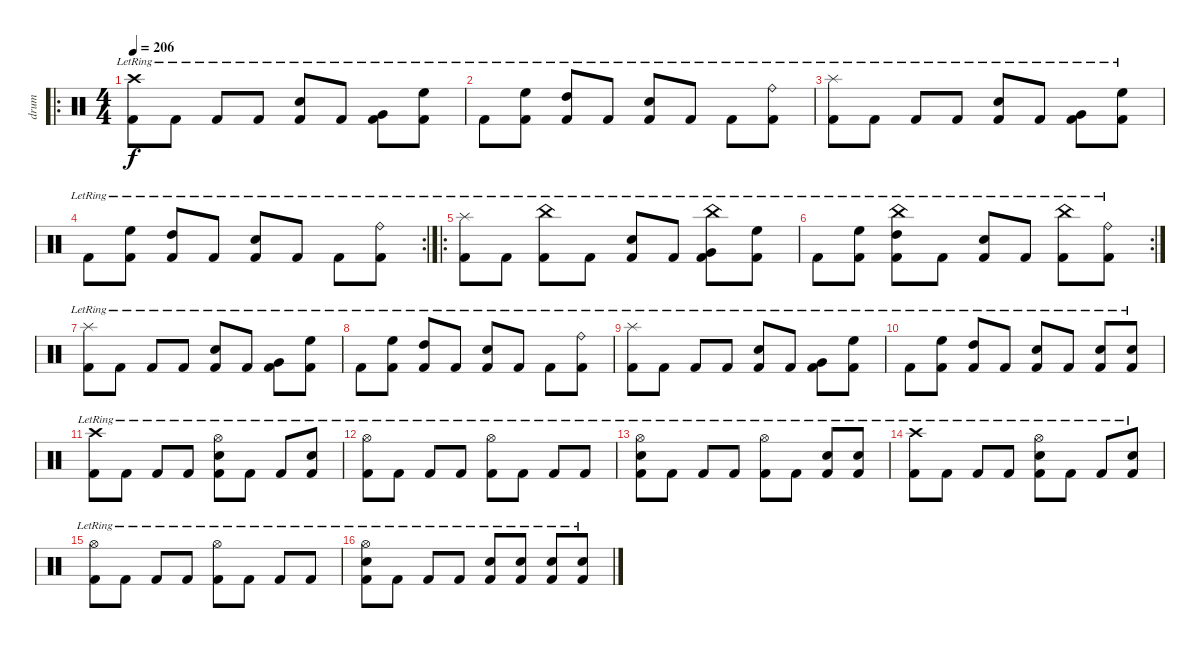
\track ("drum" "drum") {instrument percussion}
\staff {score}
\articulation defaults
\ro
\ts (4 4)
\tempo 206
\clef neutral
\ks c
("Crash high (hit)"{lr} "Kick (hit) 2"{lr}).8{dy f} "Kick (hit) 2"{lr}.8 "Kick (hit) 2"{lr}.8 "Kick (hit) 2"{lr}.8 ("Electric Snare (hit)"{lr} "Kick (hit) 2"{lr}).8 "Kick (hit) 2"{lr}.8 ("Very Low Tom (hit)"{lr} "Kick (hit) 2"{lr}).8 ("High Floor Tom (hit)"{lr} "Kick (hit) 2"{lr}).8 |
"Kick (hit) 2"{lr}.8 ("High Floor Tom (hit)"{lr} "Kick (hit) 2"{lr}).8 ("High Tom (hit)"{lr} "Kick (hit) 2"{lr}).8 "Kick (hit) 2"{lr}.8 ("Electric Snare (hit)"{lr} "Kick (hit) 2"{lr}).8 "Kick (hit) 2"{lr}.8 "Kick (hit) 2"{lr}.8 ("Ride (bell)"{lr} "Kick (hit) 2"{lr}).8 |
("Splash (hit)"{lr} "Kick (hit) 2"{lr}).8 "Kick (hit) 2"{lr}.8 "Kick (hit) 2"{lr}.8 "Kick (hit) 2"{lr}.8 ("Electric Snare (hit)"{lr} "Kick (hit) 2"{lr}).8 "Kick (hit) 2"{lr}.8 ("Very Low Tom (hit)"{lr} "Kick (hit) 2"{lr}).8 ("High Floor Tom (hit)"{lr} "Kick (hit) 2"{lr}).8 |
\rc 2 "Kick (hit) 2"{lr}.8
("High Floor Tom (hit)"{lr} "Kick (hit) 2"{lr}).8 ("High Tom (hit)"{lr} "Kick (hit) 2"{lr}).8 "Kick (hit) 2"{lr}.8 ("Electric Snare (hit)"{lr} "Kick (hit) 2"{lr}).8 "Kick (hit) 2"{lr}.8 "Kick (hit) 2"{lr}.8 ("Ride (bell)"{lr} "Kick (hit) 2"{lr}).8 |
\ro
("Splash (hit)"{lr} "Kick (hit) 2"{lr}).8 "Kick (hit) 2"{lr}.8 ("China (hit)"{lr} "Kick (hit) 2"{lr}).8 "Kick (hit) 2"{lr}.8 ("Electric Snare (hit)"{lr} "Kick (hit) 2"{lr}).8 "Kick (hit) 2"{lr}.8 ("China (hit)"{lr} "Very Low Tom (hit)"{lr} "Kick (hit) 2"{lr}).8 ("High Floor Tom (hit)"{lr} "Kick (hit) 2"{lr}).8 |
\rc 2 "Kick (hit) 2"{lr}.8
("High Floor Tom (hit)"{lr} "Kick (hit) 2"{lr}).8 ("China (hit)"{lr} "High Tom (hit)"{lr} "Kick (hit) 2"{lr}).8 "Kick (hit) 2"{lr}.8 ("Electric Snare (hit)"{lr} "Kick (hit) 2"{lr}).8 "Kick (hit) 2"{lr}.8 ("China (hit)"{lr} "Kick (hit) 2"{lr}).8 ("Ride (bell)"{lr} "Kick (hit) 2"{lr}).8 |
("Splash (hit)"{lr} "Kick (hit) 2"{lr}).8 "Kick (hit) 2"{lr}.8 "Kick (hit) 2"{lr}.8 "Kick (hit) 2"{lr}.8 ("Electric Snare (hit)"{lr} "Kick (hit) 2"{lr}).8 "Kick (hit) 2"{lr}.8 ("Very Low Tom (hit)"{lr} "Kick (hit) 2"{lr}).8 ("High Floor Tom (hit)"{lr} "Kick (hit) 2"{lr}).8 |
"Kick (hit) 2"{lr}.8 ("High Floor Tom (hit)"{lr} "Kick (hit) 2"{lr}).8 ("High Tom (hit)"{lr} "Kick (hit) 2"{lr}).8 "Kick (hit) 2"{lr}.8 ("Electric Snare (hit)"{lr} "Kick (hit) 2"{lr}).8 "Kick (hit) 2"{lr}.8 "Kick (hit) 2"{lr}.8 ("Ride (bell)"{lr} "Kick (hit) 2"{lr}).8 |
("Splash (hit)"{lr} "Kick (hit) 2"{lr}).8 "Kick (hit) 2"{lr}.8 "Kick (hit) 2"{lr}.8 "Kick (hit) 2"{lr}.8 ("Electric Snare (hit)"{lr} "Kick (hit) 2"{lr}).8 "Kick (hit) 2"{lr}.8 ("Very Low Tom (hit)"{lr} "Kick (hit) 2"{lr}).8 ("High Floor Tom (hit)"{lr} "Kick (hit) 2"{lr}).8 |
"Kick (hit) 2"{lr}.8 ("High Floor Tom (hit)"{lr} "Kick (hit) 2"{lr}).8 ("High Tom (hit)"{lr} "Kick (hit) 2"{lr}).8 "Kick (hit) 2"{lr}.8 ("Electric Snare (hit)"{lr} "Kick (hit) 2"{lr}).8 "Kick (hit) 2"{lr}.8 ("Electric Snare (hit)"{lr} "Kick (hit) 2"{lr}).8 ("Electric Snare (hit)"{lr} "Kick (hit) 2"{lr}).8 |
("Crash high (hit)"{lr} "Kick (hit) 2"{lr}).8 "Kick (hit) 2"{lr}.8 "Kick (hit) 2"{lr}.8 "Kick (hit) 2"{lr}.8 ("Hi-Hat (open)"{lr} "Electric Snare (hit)"{lr} "Kick (hit) 2"{lr}).8 "Kick (hit) 2"{lr}.8 "Kick (hit) 2"{lr}.8 ("Electric Snare (hit)"{lr} "Kick (hit) 2"{lr}).8 |
("Hi-Hat (open)"{lr} "Kick (hit) 2"{lr}).8 "Kick (hit) 2"{lr}.8 "Kick (hit) 2"{lr}.8 "Kick (hit) 2"{lr}.8 ("Hi-Hat (open)"{lr} "Kick (hit) 2"{lr}).8 "Kick (hit) 2"{lr}.8 "Kick (hit) 2"{lr}.8 "Kick (hit) 2"{lr}.8 |
("Hi-Hat (open)"{lr} "Electric Snare (hit)"{lr} "Kick (hit) 2"{lr}).8 "Kick (hit) 2"{lr}.8 "Kick (hit) 2"{lr}.8 "Kick (hit) 2"{lr}.8 ("Hi-Hat (open)"{lr} "Kick (hit) 2"{lr}).8 "Kick (hit) 2"{lr}.8 ("Electric Snare (hit)"{lr} "Kick (hit) 2"{lr}).8 ("Electric Snare (hit)"{lr} "Kick (hit) 2"{lr}).8 |
("Crash high (hit)"{lr} "Kick (hit) 2"{lr}).8 "Kick (hit) 2"{lr}.8 "Kick (hit) 2"{lr}.8 "Kick (hit) 2"{lr}.8 ("Hi-Hat (open)"{lr} "Electric Snare (hit)"{lr} "Kick (hit) 2"{lr}).8 "Kick (hit) 2"{lr}.8 "Kick (hit) 2"{lr}.8 ("Electric Snare (hit)"{lr} "Kick (hit) 2"{lr}).8 |
("Hi-Hat (open)"{lr} "Kick (hit) 2"{lr}).8 "Kick (hit) 2"{lr}.8 "Kick (hit) 2"{lr}.8 "Kick (hit) 2"{lr}.8 ("Hi-Hat (open)"{lr} "Kick (hit) 2"{lr}).8 "Kick (hit) 2"{lr}.8 "Kick (hit) 2"{lr}.8 "Kick (hit) 2"{lr}.8 |
("Hi-Hat (open)"{lr} "Electric Snare (hit)"{lr} "Kick (hit) 2"{lr}).8 "Kick (hit) 2"{lr}.8 "Kick (hit) 2"{lr}.8 "Kick (hit) 2"{lr}.8 ("Electric Snare (hit)"{lr} "Kick (hit) 2"{lr}).8 ("Electric Snare (hit)"{lr} "Kick (hit) 2"{lr}).8 ("Electric Snare (hit)"{lr} "Kick (hit) 2"{lr}).8 ("Electric Snare (hit)"{lr} "Kick (hit) 2"{lr}).8
